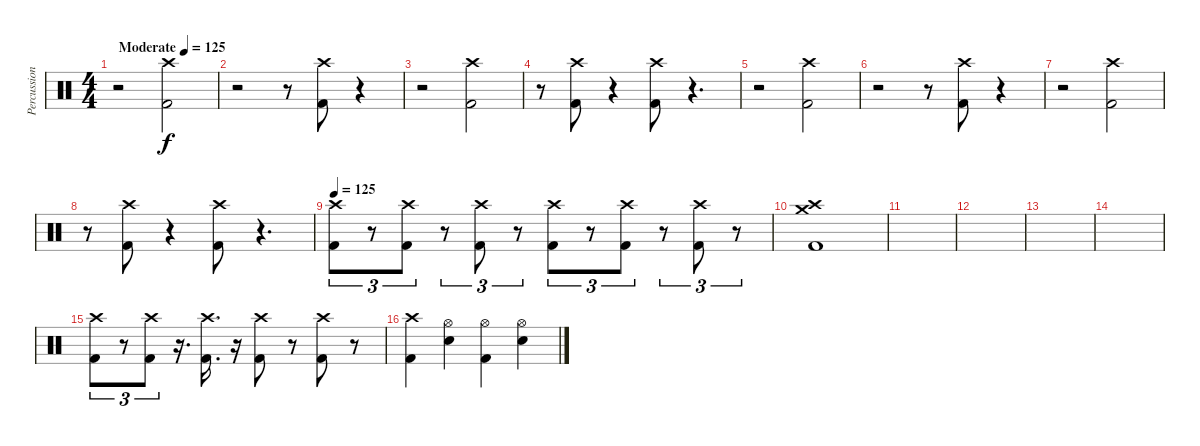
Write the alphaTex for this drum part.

\track ("Percussion" "Percussion") {instrument percussion}
\staff {score}
\articulation defaults
\ts (4 4)
\tempo (125 "Moderate")
\clef neutral
\ks c
r.2{dy f} ("Crash high (hit)" "Kick (hit) 2").2{volume 13} |
r.2 r.8 ("Crash high (hit)" "Kick (hit) 2").8 r.4{volume 0} |
r.2 ("Crash high (hit)" "Kick (hit) 2").2{volume 13} |
r.8 ("Crash high (hit)" "Kick (hit) 2").8 r.4{volume 0} ("Crash high (hit)" "Kick (hit) 2").8{volume 13} r.4{d volume 0} |
r.2 ("Crash high (hit)" "Kick (hit) 2").2{volume 13} |
r.2 r.8 ("Crash high (hit)" "Kick (hit) 2").8 r.4{volume 0} |
r.2 ("Crash high (hit)" "Kick (hit) 2").2{volume 13} |
r.8 ("Crash high (hit)" "Kick (hit) 2").8 r.4{volume 0} ("Crash high (hit)" "Kick (hit) 2").8{volume 13} r.4{d volume 0} |
\tempo 125
("Crash high (hit)" "Kick (hit) 2").8{tu (3 2) volume 13} r.8{tu (3 2) volume 0} ("Crash high (hit)" "Kick (hit) 2").8{tu (3 2) volume 13} r.8{tu (3 2) volume 0} ("Crash high (hit)" "Kick (hit) 2").8{tu (3 2) volume 13} r.8{tu (3 2) volume 0} ("Crash high (hit)" "Kick (hit) 2").8{tu (3 2) volume 13} r.8{tu (3 2) volume 0} ("Crash high (hit)" "Kick (hit) 2").8{tu (3 2) volume 13} r.8{tu (3 2) volume 0} ("Crash high (hit)" "Kick (hit) 2").8{tu (3 2) volume 13} r.8{tu (3 2) volume 0} |
("Crash high (hit)" "Crash medium (hit)" "Kick (hit) 2").1{volume 13} |
|
|
|
|
("Crash high (hit)" "Kick (hit) 2").8{tu (3 2) volume 13} r.8{tu (3 2) volume 0} ("Crash high (hit)" "Kick (hit) 2").8{tu (3 2) volume 13} r.16{d volume 0} ("Crash high (hit)" "Kick (hit) 2").16{d volume 13} r.16{volume 0} ("Crash high (hit)" "Kick (hit) 2").8{volume 13} r.8{volume 0} ("Crash high (hit)" "Kick (hit) 2").8{volume 13} r.8{volume 0} |
("Crash high (hit)" "Kick (hit) 2").4{volume 13} ("Hi-Hat (open)" "Electric Snare (hit)").4 ("Hi-Hat (open)" "Kick (hit) 2").4 ("Hi-Hat (open)" "Electric Snare (hit)").4
